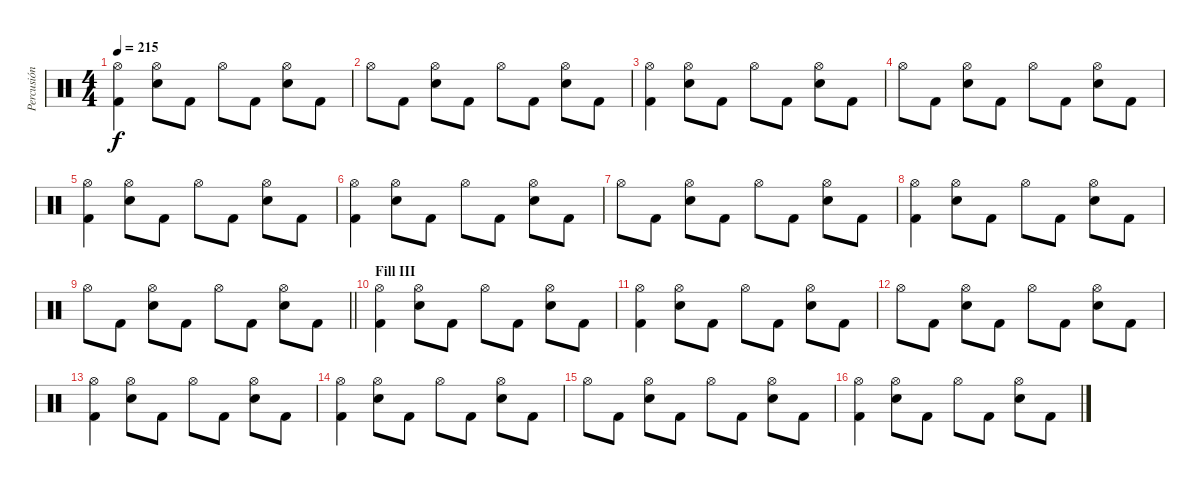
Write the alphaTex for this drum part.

\track ("Percusión" "Percusión") {instrument percussion}
\staff {score}
\articulation defaults
\ts (4 4)
\tempo 215
\clef neutral
\ks c
("Hi-Hat (open)" "Kick (hit) 2").4{dy f} ("Hi-Hat (open)" "Electric Snare (hit)").8 "Kick (hit) 2".8 "Hi-Hat (open)".8 "Kick (hit) 2".8 ("Hi-Hat (open)" "Electric Snare (hit)").8 "Kick (hit) 2".8 |
"Hi-Hat (open)".8 "Kick (hit) 2".8 ("Hi-Hat (open)" "Electric Snare (hit)").8 "Kick (hit) 2".8 "Hi-Hat (open)".8 "Kick (hit) 2".8 ("Hi-Hat (open)" "Electric Snare (hit)").8 "Kick (hit) 2".8 |
("Hi-Hat (open)" "Kick (hit) 2").4 ("Hi-Hat (open)" "Electric Snare (hit)").8 "Kick (hit) 2".8 "Hi-Hat (open)".8 "Kick (hit) 2".8 ("Hi-Hat (open)" "Electric Snare (hit)").8 "Kick (hit) 2".8 |
"Hi-Hat (open)".8 "Kick (hit) 2".8 ("Hi-Hat (open)" "Electric Snare (hit)").8 "Kick (hit) 2".8 "Hi-Hat (open)".8 "Kick (hit) 2".8 ("Hi-Hat (open)" "Electric Snare (hit)").8 "Kick (hit) 2".8 |
("Hi-Hat (open)" "Kick (hit) 2").4 ("Hi-Hat (open)" "Electric Snare (hit)").8 "Kick (hit) 2".8 "Hi-Hat (open)".8 "Kick (hit) 2".8 ("Hi-Hat (open)" "Electric Snare (hit)").8 "Kick (hit) 2".8 |
("Hi-Hat (open)" "Kick (hit) 2").4 ("Hi-Hat (open)" "Electric Snare (hit)").8 "Kick (hit) 2".8 "Hi-Hat (open)".8 "Kick (hit) 2".8 ("Hi-Hat (open)" "Electric Snare (hit)").8 "Kick (hit) 2".8 |
"Hi-Hat (open)".8 "Kick (hit) 2".8 ("Hi-Hat (open)" "Electric Snare (hit)").8 "Kick (hit) 2".8 "Hi-Hat (open)".8 "Kick (hit) 2".8 ("Hi-Hat (open)" "Electric Snare (hit)").8 "Kick (hit) 2".8 |
("Hi-Hat (open)" "Kick (hit) 2").4 ("Hi-Hat (open)" "Electric Snare (hit)").8 "Kick (hit) 2".8 "Hi-Hat (open)".8 "Kick (hit) 2".8 ("Hi-Hat (open)" "Electric Snare (hit)").8 "Kick (hit) 2".8 |
\barLineRight lightlight "Hi-Hat (open)".8 "Kick (hit) 2".8
("Hi-Hat (open)" "Electric Snare (hit)").8 "Kick (hit) 2".8 "Hi-Hat (open)".8 "Kick (hit) 2".8 ("Hi-Hat (open)" "Electric Snare (hit)").8 "Kick (hit) 2".8 |
\section ("" "Fill III")
("Hi-Hat (open)" "Kick (hit) 2").4 ("Hi-Hat (open)" "Electric Snare (hit)").8 "Kick (hit) 2".8 "Hi-Hat (open)".8 "Kick (hit) 2".8 ("Hi-Hat (open)" "Electric Snare (hit)").8 "Kick (hit) 2".8 |
("Hi-Hat (open)" "Kick (hit) 2").4 ("Hi-Hat (open)" "Electric Snare (hit)").8 "Kick (hit) 2".8 "Hi-Hat (open)".8 "Kick (hit) 2".8 ("Hi-Hat (open)" "Electric Snare (hit)").8 "Kick (hit) 2".8 |
"Hi-Hat (open)".8 "Kick (hit) 2".8 ("Hi-Hat (open)" "Electric Snare (hit)").8 "Kick (hit) 2".8 "Hi-Hat (open)".8 "Kick (hit) 2".8 ("Hi-Hat (open)" "Electric Snare (hit)").8 "Kick (hit) 2".8 |
("Hi-Hat (open)" "Kick (hit) 2").4 ("Hi-Hat (open)" "Electric Snare (hit)").8 "Kick (hit) 2".8 "Hi-Hat (open)".8 "Kick (hit) 2".8 ("Hi-Hat (open)" "Electric Snare (hit)").8 "Kick (hit) 2".8 |
("Hi-Hat (open)" "Kick (hit) 2").4 ("Hi-Hat (open)" "Electric Snare (hit)").8 "Kick (hit) 2".8 "Hi-Hat (open)".8 "Kick (hit) 2".8 ("Hi-Hat (open)" "Electric Snare (hit)").8 "Kick (hit) 2".8 |
"Hi-Hat (open)".8 "Kick (hit) 2".8 ("Hi-Hat (open)" "Electric Snare (hit)").8 "Kick (hit) 2".8 "Hi-Hat (open)".8 "Kick (hit) 2".8 ("Hi-Hat (open)" "Electric Snare (hit)").8 "Kick (hit) 2".8 |
("Hi-Hat (open)" "Kick (hit) 2").4 ("Hi-Hat (open)" "Electric Snare (hit)").8 "Kick (hit) 2".8 "Hi-Hat (open)".8 "Kick (hit) 2".8 ("Hi-Hat (open)" "Electric Snare (hit)").8 "Kick (hit) 2".8
